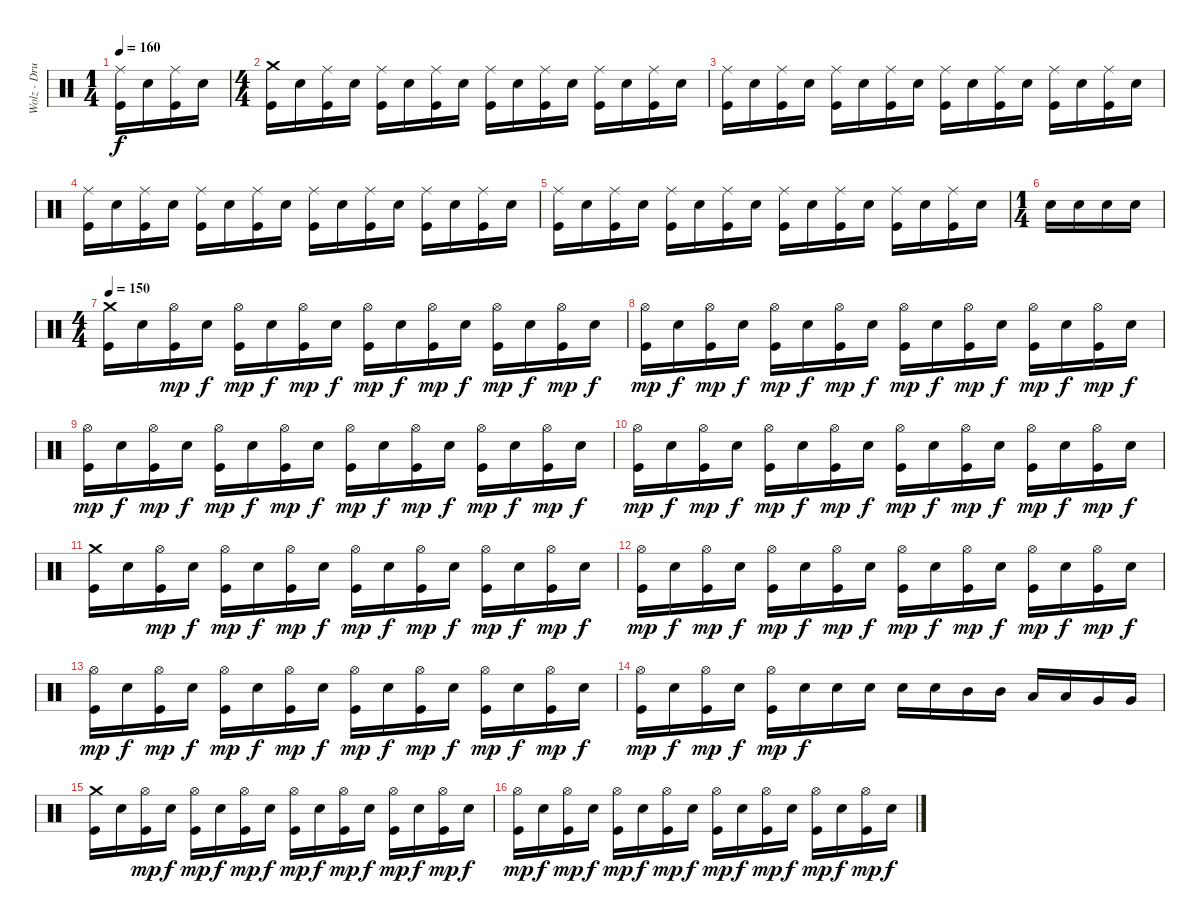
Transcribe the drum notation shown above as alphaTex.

\track ("Wolz - Drums" "Wolz - Dru") {instrument percussion}
\staff {score}
\articulation defaults
\ts (1 4)
\tempo 160
\clef neutral
\ks c
("Ride (middle)" "Kick (hit)").16{dy f} "Electric Snare (hit)".16 ("Ride (middle)" "Kick (hit)").16 "Electric Snare (hit)".16 |
\ts (4 4)
("Crash medium (hit)" "Kick (hit)").16 "Electric Snare (hit)".16 ("Ride (middle)" "Kick (hit)").16 "Electric Snare (hit)".16 ("Ride (middle)" "Kick (hit)").16 "Electric Snare (hit)".16 ("Ride (middle)" "Kick (hit)").16 "Electric Snare (hit)".16 ("Ride (middle)" "Kick (hit)").16 "Electric Snare (hit)".16 ("Ride (middle)" "Kick (hit)").16 "Electric Snare (hit)".16 ("Ride (middle)" "Kick (hit)").16 "Electric Snare (hit)".16 ("Ride (middle)" "Kick (hit)").16 "Electric Snare (hit)".16 |
("Ride (middle)" "Kick (hit)").16 "Electric Snare (hit)".16 ("Ride (middle)" "Kick (hit)").16 "Electric Snare (hit)".16 ("Ride (middle)" "Kick (hit)").16 "Electric Snare (hit)".16 ("Ride (middle)" "Kick (hit)").16 "Electric Snare (hit)".16 ("Ride (middle)" "Kick (hit)").16 "Electric Snare (hit)".16 ("Ride (middle)" "Kick (hit)").16 "Electric Snare (hit)".16 ("Ride (middle)" "Kick (hit)").16 "Electric Snare (hit)".16 ("Ride (middle)" "Kick (hit)").16 "Electric Snare (hit)".16 |
("Ride (middle)" "Kick (hit)").16 "Electric Snare (hit)".16 ("Ride (middle)" "Kick (hit)").16 "Electric Snare (hit)".16 ("Ride (middle)" "Kick (hit)").16 "Electric Snare (hit)".16 ("Ride (middle)" "Kick (hit)").16 "Electric Snare (hit)".16 ("Ride (middle)" "Kick (hit)").16 "Electric Snare (hit)".16 ("Ride (middle)" "Kick (hit)").16 "Electric Snare (hit)".16 ("Ride (middle)" "Kick (hit)").16 "Electric Snare (hit)".16 ("Ride (middle)" "Kick (hit)").16 "Electric Snare (hit)".16 |
("Ride (middle)" "Kick (hit)").16 "Electric Snare (hit)".16 ("Ride (middle)" "Kick (hit)").16 "Electric Snare (hit)".16 ("Ride (middle)" "Kick (hit)").16 "Electric Snare (hit)".16 ("Ride (middle)" "Kick (hit)").16 "Electric Snare (hit)".16 ("Ride (middle)" "Kick (hit)").16 "Electric Snare (hit)".16 ("Ride (middle)" "Kick (hit)").16 "Electric Snare (hit)".16 ("Ride (middle)" "Kick (hit)").16 "Electric Snare (hit)".16 ("Ride (middle)" "Kick (hit)").16 "Electric Snare (hit)".16 |
\ts (1 4)
"Electric Snare (hit)".16 "Electric Snare (hit)".16 "Electric Snare (hit)".16 "Electric Snare (hit)".16 |
\ts (4 4)
\tempo 150
("Crash medium (hit)" "Kick (hit)").16 "Electric Snare (hit)".16 ("Hi-Hat (open)" "Kick (hit)").16{dy mp} "Electric Snare (hit)".16{dy f} ("Hi-Hat (open)" "Kick (hit)").16{dy mp} "Electric Snare (hit)".16{dy f} ("Hi-Hat (open)" "Kick (hit)").16{dy mp} "Electric Snare (hit)".16{dy f} ("Hi-Hat (open)" "Kick (hit)").16{dy mp} "Electric Snare (hit)".16{dy f} ("Hi-Hat (open)" "Kick (hit)").16{dy mp} "Electric Snare (hit)".16{dy f} ("Hi-Hat (open)" "Kick (hit)").16{dy mp} "Electric Snare (hit)".16{dy f} ("Hi-Hat (open)" "Kick (hit)").16{dy mp} "Electric Snare (hit)".16{dy f} |
("Hi-Hat (open)" "Kick (hit)").16{dy mp} "Electric Snare (hit)".16{dy f} ("Hi-Hat (open)" "Kick (hit)").16{dy mp} "Electric Snare (hit)".16{dy f} ("Hi-Hat (open)" "Kick (hit)").16{dy mp} "Electric Snare (hit)".16{dy f} ("Hi-Hat (open)" "Kick (hit)").16{dy mp} "Electric Snare (hit)".16{dy f} ("Hi-Hat (open)" "Kick (hit)").16{dy mp} "Electric Snare (hit)".16{dy f} ("Hi-Hat (open)" "Kick (hit)").16{dy mp} "Electric Snare (hit)".16{dy f} ("Hi-Hat (open)" "Kick (hit)").16{dy mp} "Electric Snare (hit)".16{dy f} ("Hi-Hat (open)" "Kick (hit)").16{dy mp} "Electric Snare (hit)".16{dy f} |
("Hi-Hat (open)" "Kick (hit)").16{dy mp} "Electric Snare (hit)".16{dy f} ("Hi-Hat (open)" "Kick (hit)").16{dy mp} "Electric Snare (hit)".16{dy f} ("Hi-Hat (open)" "Kick (hit)").16{dy mp} "Electric Snare (hit)".16{dy f} ("Hi-Hat (open)" "Kick (hit)").16{dy mp} "Electric Snare (hit)".16{dy f} ("Hi-Hat (open)" "Kick (hit)").16{dy mp} "Electric Snare (hit)".16{dy f} ("Hi-Hat (open)" "Kick (hit)").16{dy mp} "Electric Snare (hit)".16{dy f} ("Hi-Hat (open)" "Kick (hit)").16{dy mp} "Electric Snare (hit)".16{dy f} ("Hi-Hat (open)" "Kick (hit)").16{dy mp} "Electric Snare (hit)".16{dy f} |
("Hi-Hat (open)" "Kick (hit)").16{dy mp} "Electric Snare (hit)".16{dy f} ("Hi-Hat (open)" "Kick (hit)").16{dy mp} "Electric Snare (hit)".16{dy f} ("Hi-Hat (open)" "Kick (hit)").16{dy mp} "Electric Snare (hit)".16{dy f} ("Hi-Hat (open)" "Kick (hit)").16{dy mp} "Electric Snare (hit)".16{dy f} ("Hi-Hat (open)" "Kick (hit)").16{dy mp} "Electric Snare (hit)".16{dy f} ("Hi-Hat (open)" "Kick (hit)").16{dy mp} "Electric Snare (hit)".16{dy f} ("Hi-Hat (open)" "Kick (hit)").16{dy mp} "Electric Snare (hit)".16{dy f} ("Hi-Hat (open)" "Kick (hit)").16{dy mp} "Electric Snare (hit)".16{dy f} |
("Crash medium (hit)" "Kick (hit)").16 "Electric Snare (hit)".16 ("Hi-Hat (open)" "Kick (hit)").16{dy mp} "Electric Snare (hit)".16{dy f} ("Hi-Hat (open)" "Kick (hit)").16{dy mp} "Electric Snare (hit)".16{dy f} ("Hi-Hat (open)" "Kick (hit)").16{dy mp} "Electric Snare (hit)".16{dy f} ("Hi-Hat (open)" "Kick (hit)").16{dy mp} "Electric Snare (hit)".16{dy f} ("Hi-Hat (open)" "Kick (hit)").16{dy mp} "Electric Snare (hit)".16{dy f} ("Hi-Hat (open)" "Kick (hit)").16{dy mp} "Electric Snare (hit)".16{dy f} ("Hi-Hat (open)" "Kick (hit)").16{dy mp} "Electric Snare (hit)".16{dy f} |
("Hi-Hat (open)" "Kick (hit)").16{dy mp} "Electric Snare (hit)".16{dy f} ("Hi-Hat (open)" "Kick (hit)").16{dy mp} "Electric Snare (hit)".16{dy f} ("Hi-Hat (open)" "Kick (hit)").16{dy mp} "Electric Snare (hit)".16{dy f} ("Hi-Hat (open)" "Kick (hit)").16{dy mp} "Electric Snare (hit)".16{dy f} ("Hi-Hat (open)" "Kick (hit)").16{dy mp} "Electric Snare (hit)".16{dy f} ("Hi-Hat (open)" "Kick (hit)").16{dy mp} "Electric Snare (hit)".16{dy f} ("Hi-Hat (open)" "Kick (hit)").16{dy mp} "Electric Snare (hit)".16{dy f} ("Hi-Hat (open)" "Kick (hit)").16{dy mp} "Electric Snare (hit)".16{dy f} |
("Hi-Hat (open)" "Kick (hit)").16{dy mp} "Electric Snare (hit)".16{dy f} ("Hi-Hat (open)" "Kick (hit)").16{dy mp} "Electric Snare (hit)".16{dy f} ("Hi-Hat (open)" "Kick (hit)").16{dy mp} "Electric Snare (hit)".16{dy f} ("Hi-Hat (open)" "Kick (hit)").16{dy mp} "Electric Snare (hit)".16{dy f} ("Hi-Hat (open)" "Kick (hit)").16{dy mp} "Electric Snare (hit)".16{dy f} ("Hi-Hat (open)" "Kick (hit)").16{dy mp} "Electric Snare (hit)".16{dy f} ("Hi-Hat (open)" "Kick (hit)").16{dy mp} "Electric Snare (hit)".16{dy f} ("Hi-Hat (open)" "Kick (hit)").16{dy mp} "Electric Snare (hit)".16{dy f} |
("Hi-Hat (open)" "Kick (hit)").16{dy mp} "Electric Snare (hit)".16{dy f} ("Hi-Hat (open)" "Kick (hit)").16{dy mp} "Electric Snare (hit)".16{dy f} ("Hi-Hat (open)" "Kick (hit)").16{dy mp} "Electric Snare (hit)".16{dy f} "Electric Snare (hit)".16 "Electric Snare (hit)".16 "Electric Snare (hit)".16 "Electric Snare (hit)".16 "Mid Tom (hit)".16 "Mid Tom (hit)".16 "Low Tom (hit)".16 "Low Tom (hit)".16 "Very Low Tom (hit)".16 "Very Low Tom (hit)".16 |
("Crash medium (hit)" "Kick (hit)").16 "Electric Snare (hit)".16 ("Hi-Hat (open)" "Kick (hit)").16{dy mp} "Electric Snare (hit)".16{dy f} ("Hi-Hat (open)" "Kick (hit)").16{dy mp} "Electric Snare (hit)".16{dy f} ("Hi-Hat (open)" "Kick (hit)").16{dy mp} "Electric Snare (hit)".16{dy f} ("Hi-Hat (open)" "Kick (hit)").16{dy mp} "Electric Snare (hit)".16{dy f} ("Hi-Hat (open)" "Kick (hit)").16{dy mp} "Electric Snare (hit)".16{dy f} ("Hi-Hat (open)" "Kick (hit)").16{dy mp} "Electric Snare (hit)".16{dy f} ("Hi-Hat (open)" "Kick (hit)").16{dy mp} "Electric Snare (hit)".16{dy f} |
("Hi-Hat (open)" "Kick (hit)").16{dy mp} "Electric Snare (hit)".16{dy f} ("Hi-Hat (open)" "Kick (hit)").16{dy mp} "Electric Snare (hit)".16{dy f} ("Hi-Hat (open)" "Kick (hit)").16{dy mp} "Electric Snare (hit)".16{dy f} ("Hi-Hat (open)" "Kick (hit)").16{dy mp} "Electric Snare (hit)".16{dy f} ("Hi-Hat (open)" "Kick (hit)").16{dy mp} "Electric Snare (hit)".16{dy f} ("Hi-Hat (open)" "Kick (hit)").16{dy mp} "Electric Snare (hit)".16{dy f} ("Hi-Hat (open)" "Kick (hit)").16{dy mp} "Electric Snare (hit)".16{dy f} ("Hi-Hat (open)" "Kick (hit)").16{dy mp} "Electric Snare (hit)".16{dy f}
